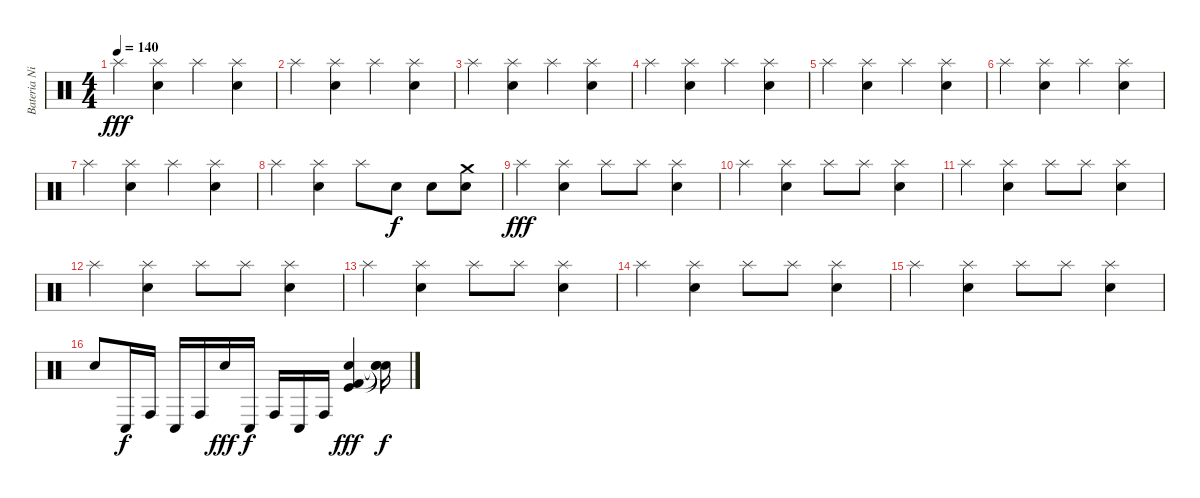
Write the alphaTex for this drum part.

\track ("Bateria Nicolas Cabrera" "Bateria Ni") {instrument percussion}
\staff {score}
\articulation defaults
\ts (4 4)
\tempo 140
\clef neutral
\ks c "Splash (hit)".4{dy fff}
("Splash (hit)" "Electric Snare (hit)").4 "Splash (hit)".4 ("Splash (hit)" "Electric Snare (hit)").4 |
"Splash (hit)".4 ("Splash (hit)" "Electric Snare (hit)").4 "Splash (hit)".4 ("Splash (hit)" "Electric Snare (hit)").4 |
"Splash (hit)".4 ("Splash (hit)" "Electric Snare (hit)").4 "Splash (hit)".4 ("Splash (hit)" "Electric Snare (hit)").4 |
"Splash (hit)".4 ("Splash (hit)" "Electric Snare (hit)").4 "Splash (hit)".4 ("Splash (hit)" "Electric Snare (hit)").4 |
"Splash (hit)".4 ("Splash (hit)" "Electric Snare (hit)").4 "Splash (hit)".4 ("Splash (hit)" "Electric Snare (hit)").4 |
"Splash (hit)".4 ("Splash (hit)" "Electric Snare (hit)").4 "Splash (hit)".4 ("Splash (hit)" "Electric Snare (hit)").4 |
"Splash (hit)".4 ("Splash (hit)" "Electric Snare (hit)").4 "Splash (hit)".4 ("Splash (hit)" "Electric Snare (hit)").4 |
"Splash (hit)".4 ("Splash (hit)" "Electric Snare (hit)").4 "Splash (hit)".8 "Snare (hit) 2".8{dy f} "Snare (hit) 2".8 ("Snare (hit) 2" "Crash medium (hit)").8 |
"Splash (hit)".4{dy fff} ("Splash (hit)" "Snare (hit) 2").4 "Splash (hit)".8 "Splash (hit)".8 ("Splash (hit)" "Snare (hit) 2").4 |
"Splash (hit)".4 ("Splash (hit)" "Snare (hit) 2").4 "Splash (hit)".8 "Splash (hit)".8 ("Splash (hit)" "Snare (hit) 2").4 |
"Splash (hit)".4 ("Splash (hit)" "Snare (hit) 2").4 "Splash (hit)".8 "Splash (hit)".8 ("Splash (hit)" "Snare (hit) 2").4 |
"Splash (hit)".4 ("Splash (hit)" "Snare (hit) 2").4 "Splash (hit)".8 "Splash (hit)".8 ("Splash (hit)" "Snare (hit) 2").4 |
"Splash (hit)".4 ("Splash (hit)" "Snare (hit) 2").4 "Splash (hit)".8 "Splash (hit)".8 ("Splash (hit)" "Snare (hit) 2").4 |
"Splash (hit)".4 ("Splash (hit)" "Snare (hit) 2").4 "Splash (hit)".8 "Splash (hit)".8 ("Splash (hit)" "Snare (hit) 2").4 |
"Splash (hit)".4 ("Splash (hit)" "Snare (hit) 2").4 "Splash (hit)".8 "Splash (hit)".8 ("Splash (hit)" "Snare (hit) 2").4 |
"Snare (hit) 2".8 "Conga low (hit)".16{dy f} "Conga high (hit)".16 "Conga low (hit)".16 "Conga high (hit)".16 "Snare (hit) 2".16{dy fff} "Conga low (hit)".16{dy f} "Conga high (hit)".16 "Conga low (hit)".16 "Conga high (hit)".16 ("Snare (hit) 2" "Kick (hit) 2" "Kick (hit)").4{dy fff} ("Snare (hit)"{t} "Snare (hit)"{t} "Snare (hit)"{t}).16{dy f}
